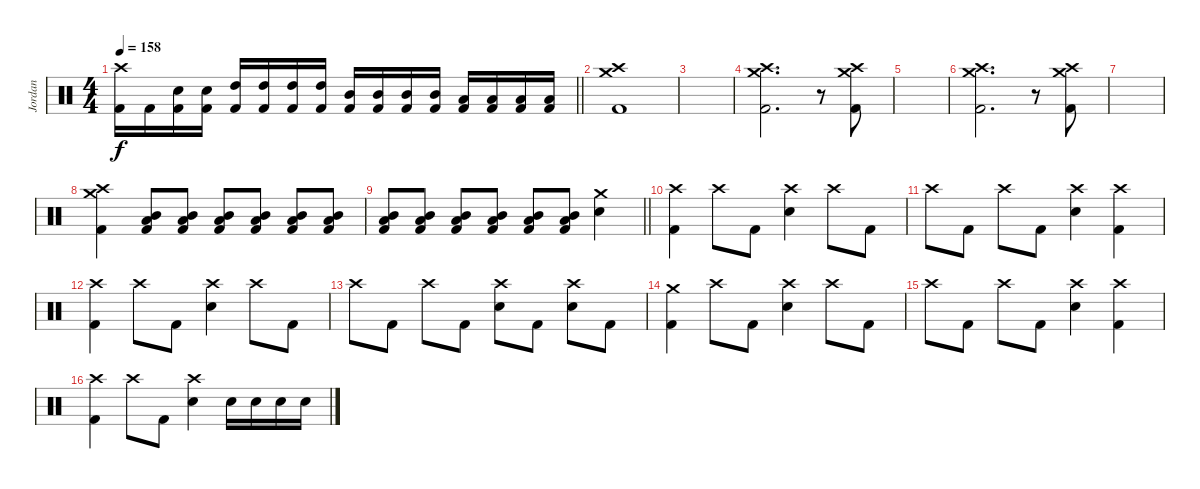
\track ("Jordan" "Jordan") {instrument percussion}
\staff {score}
\articulation defaults
\ts (4 4)
\tempo 158
\clef neutral
\barLineRight lightlight
\ks c
("Crash high (hit)" "Kick (hit) 2").16{dy f} "Kick (hit) 2".16 ("Electric Snare (hit)" "Kick (hit) 2").16 ("Electric Snare (hit)" "Kick (hit) 2").16 ("High Tom (hit)" "Kick (hit) 2").16 ("High Tom (hit)" "Kick (hit) 2").16 ("High Tom (hit)" "Kick (hit) 2").16 ("High Tom (hit)" "Kick (hit) 2").16 ("Mid Tom (hit)" "Kick (hit) 2").16 ("Mid Tom (hit)" "Kick (hit) 2").16 ("Mid Tom (hit)" "Kick (hit) 2").16 ("Mid Tom (hit)" "Kick (hit) 2").16 ("Low Tom (hit)" "Kick (hit) 2").16 ("Low Tom (hit)" "Kick (hit) 2").16 ("Low Tom (hit)" "Kick (hit) 2").16 ("Low Tom (hit)" "Kick (hit) 2").16 |
("Crash medium (hit)" "Crash high (hit)" "Kick (hit) 2").1 |
|
("Crash medium (hit)" "Crash high (hit)" "Kick (hit) 2").2{d} r.8 ("Crash medium (hit)" "Crash high (hit)" "Kick (hit) 2").8 |
|
("Crash medium (hit)" "Crash high (hit)" "Kick (hit) 2").2{d} r.8 ("Crash medium (hit)" "Crash high (hit)" "Kick (hit) 2").8 |
|
("Crash medium (hit)" "Crash high (hit)" "Kick (hit) 2").4 ("Mid Tom (hit)" "Low Tom (hit)" "Kick (hit) 2").8 ("Mid Tom (hit)" "Low Tom (hit)" "Kick (hit) 2").8 ("Mid Tom (hit)" "Low Tom (hit)" "Kick (hit) 2").8 ("Mid Tom (hit)" "Low Tom (hit)" "Kick (hit) 2").8 ("Mid Tom (hit)" "Low Tom (hit)" "Kick (hit) 2").8 ("Mid Tom (hit)" "Low Tom (hit)" "Kick (hit) 2").8 |
\barLineRight lightlight
("Mid Tom (hit)" "Low Tom (hit)" "Kick (hit) 2").8 ("Mid Tom (hit)" "Low Tom (hit)" "Kick (hit) 2").8 ("Mid Tom (hit)" "Low Tom (hit)" "Kick (hit) 2").8 ("Mid Tom (hit)" "Low Tom (hit)" "Kick (hit) 2").8 ("Mid Tom (hit)" "Low Tom (hit)" "Kick (hit) 2").8 ("Mid Tom (hit)" "Low Tom (hit)" "Kick (hit) 2").8 ("Crash medium (hit)" "Electric Snare (hit)").4 |
("Crash high (hit)" "Kick (hit) 2").4 "Crash high (hit)".8 "Kick (hit) 2".8 ("Crash high (hit)" "Electric Snare (hit)").4 "Crash high (hit)".8 "Kick (hit) 2".8 |
"Crash high (hit)".8 "Kick (hit) 2".8 "Crash high (hit)".8 "Kick (hit) 2".8 ("Crash high (hit)" "Electric Snare (hit)").4 ("Crash high (hit)" "Kick (hit) 2").4 |
("Crash high (hit)" "Kick (hit) 2").4 "Crash high (hit)".8 "Kick (hit) 2".8 ("Crash high (hit)" "Electric Snare (hit)").4 "Crash high (hit)".8 "Kick (hit) 2".8 |
"Crash high (hit)".8 "Kick (hit) 2".8 "Crash high (hit)".8 "Kick (hit) 2".8 ("Crash high (hit)" "Electric Snare (hit)").8 "Kick (hit) 2".8 ("Crash high (hit)" "Electric Snare (hit)").8 "Kick (hit) 2".8 |
("Crash medium (hit)" "Kick (hit) 2").4 "Crash high (hit)".8 "Kick (hit) 2".8 ("Crash high (hit)" "Electric Snare (hit)").4 "Crash high (hit)".8 "Kick (hit) 2".8 |
"Crash high (hit)".8 "Kick (hit) 2".8 "Crash high (hit)".8 "Kick (hit) 2".8 ("Crash high (hit)" "Electric Snare (hit)").4 ("Crash high (hit)" "Kick (hit) 2").4 |
("Crash high (hit)" "Kick (hit) 2").4 "Crash high (hit)".8 "Kick (hit) 2".8 ("Crash high (hit)" "Electric Snare (hit)").4 "Electric Snare (hit)".16 "Electric Snare (hit)".16 "Electric Snare (hit)".16 "Electric Snare (hit)".16
